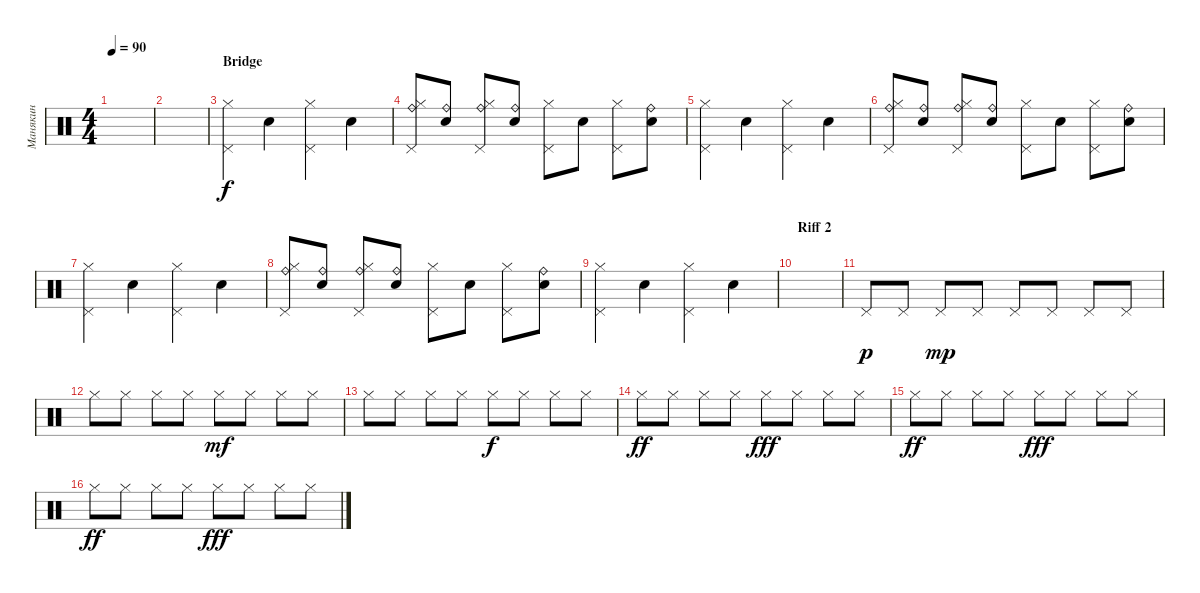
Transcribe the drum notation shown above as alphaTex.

\track ("Манякин" "Манякин") {instrument percussion}
\staff {score}
\articulation defaults
\ts (4 4)
\tempo 90
\clef neutral
\ks c
|
|
\section ("" "Bridge")
("Pedal Hi-Hat (hit)" "Hi-Hat (closed)").4{volume 13} "Electric Snare (hit)".4 ("Hi-Hat (closed)" "Pedal Hi-Hat (hit)").4 "Electric Snare (hit)".4 |
("Pedal Hi-Hat (hit)" "Hi-Hat (closed)" "Ride (bell)").8 ("Electric Snare (hit)" "Ride (bell)").8 ("Hi-Hat (closed)" "Pedal Hi-Hat (hit)" "Ride (bell)").8 ("Electric Snare (hit)" "Ride (bell)").8 ("Pedal Hi-Hat (hit)" "Hi-Hat (closed)").8 "Electric Snare (hit)".8 ("Pedal Hi-Hat (hit)" "Hi-Hat (closed)").8 ("Electric Snare (hit)" "Ride (bell)").8 |
("Pedal Hi-Hat (hit)" "Hi-Hat (closed)").4 "Electric Snare (hit)".4 ("Hi-Hat (closed)" "Pedal Hi-Hat (hit)").4 "Electric Snare (hit)".4 |
("Pedal Hi-Hat (hit)" "Hi-Hat (closed)" "Ride (bell)").8 ("Electric Snare (hit)" "Ride (bell)").8 ("Hi-Hat (closed)" "Pedal Hi-Hat (hit)" "Ride (bell)").8 ("Electric Snare (hit)" "Ride (bell)").8 ("Pedal Hi-Hat (hit)" "Hi-Hat (closed)").8 "Electric Snare (hit)".8 ("Pedal Hi-Hat (hit)" "Hi-Hat (closed)").8 ("Electric Snare (hit)" "Ride (bell)").8 |
("Pedal Hi-Hat (hit)" "Hi-Hat (closed)").4 "Electric Snare (hit)".4 ("Hi-Hat (closed)" "Pedal Hi-Hat (hit)").4 "Electric Snare (hit)".4 |
("Pedal Hi-Hat (hit)" "Hi-Hat (closed)" "Ride (bell)").8 ("Electric Snare (hit)" "Ride (bell)").8 ("Hi-Hat (closed)" "Pedal Hi-Hat (hit)" "Ride (bell)").8 ("Electric Snare (hit)" "Ride (bell)").8 ("Pedal Hi-Hat (hit)" "Hi-Hat (closed)").8 "Electric Snare (hit)".8 ("Pedal Hi-Hat (hit)" "Hi-Hat (closed)").8 ("Electric Snare (hit)" "Ride (bell)").8 |
("Pedal Hi-Hat (hit)" "Hi-Hat (closed)").4 "Electric Snare (hit)".4 ("Hi-Hat (closed)" "Pedal Hi-Hat (hit)").4 "Electric Snare (hit)".4 |
\section ("" "Riff 2")
|
"Pedal Hi-Hat (hit)".8{dy p} "Pedal Hi-Hat (hit)".8 "Pedal Hi-Hat (hit)".8{dy mp} "Pedal Hi-Hat (hit)".8 "Pedal Hi-Hat (hit)".8 "Pedal Hi-Hat (hit)".8 "Pedal Hi-Hat (hit)".8 "Pedal Hi-Hat (hit)".8 |
"Hi-Hat (closed)".8 "Hi-Hat (closed)".8 "Hi-Hat (closed)".8 "Hi-Hat (closed)".8 "Hi-Hat (closed)".8{dy mf} "Hi-Hat (closed)".8 "Hi-Hat (closed)".8 "Hi-Hat (closed)".8 |
"Hi-Hat (closed)".8 "Hi-Hat (closed)".8 "Hi-Hat (closed)".8 "Hi-Hat (closed)".8 "Hi-Hat (closed)".8{dy f} "Hi-Hat (closed)".8 "Hi-Hat (closed)".8 "Hi-Hat (closed)".8 |
"Hi-Hat (closed)".8{dy ff} "Hi-Hat (closed)".8 "Hi-Hat (closed)".8 "Hi-Hat (closed)".8 "Hi-Hat (closed)".8{dy fff} "Hi-Hat (closed)".8 "Hi-Hat (closed)".8 "Hi-Hat (closed)".8 |
"Hi-Hat (closed)".8{dy ff} "Hi-Hat (closed)".8 "Hi-Hat (closed)".8 "Hi-Hat (closed)".8 "Hi-Hat (closed)".8{dy fff} "Hi-Hat (closed)".8 "Hi-Hat (closed)".8 "Hi-Hat (closed)".8 |
"Hi-Hat (closed)".8{dy ff} "Hi-Hat (closed)".8 "Hi-Hat (closed)".8 "Hi-Hat (closed)".8 "Hi-Hat (closed)".8{dy fff} "Hi-Hat (closed)".8 "Hi-Hat (closed)".8 "Hi-Hat (closed)".8
